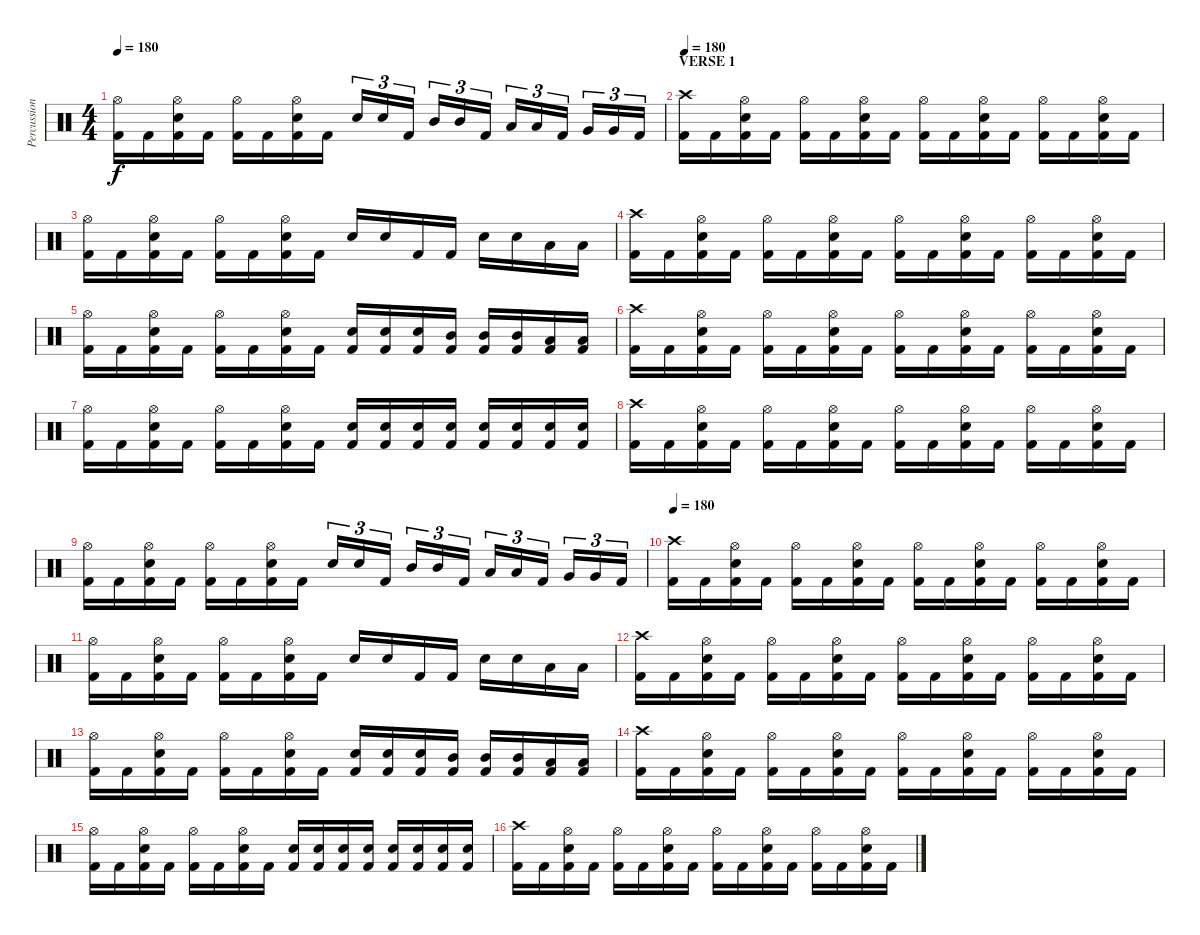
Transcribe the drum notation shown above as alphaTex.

\track ("Percussion" "Percussion") {instrument percussion}
\staff {score}
\articulation defaults
\ts (4 4)
\tempo 180
\clef neutral
\ks c
("Hi-Hat (open)" "Kick (hit) 2").16{dy f} "Kick (hit) 2".16 ("Hi-Hat (open)" "Snare (hit) 2" "Kick (hit) 2").16 "Kick (hit) 2".16 ("Hi-Hat (open)" "Kick (hit) 2").16 "Kick (hit) 2".16 ("Hi-Hat (open)" "Snare (hit) 2" "Kick (hit) 2").16 "Kick (hit) 2".16 "Snare (hit) 2".16{tu (3 2)} "Snare (hit) 2".16{tu (3 2)} "Kick (hit) 2".16{tu (3 2)} "Mid Tom (hit)".16{tu (3 2)} "Mid Tom (hit)".16{tu (3 2)} "Kick (hit) 2".16{tu (3 2)} "Low Tom (hit)".16{tu (3 2)} "Low Tom (hit)".16{tu (3 2)} "Kick (hit) 2".16{tu (3 2)} "Very Low Tom (hit)".16{tu (3 2)} "Very Low Tom (hit)".16{tu (3 2)} "Kick (hit) 2".16{tu (3 2)} |
\section ("" "VERSE 1")
\tempo 180
("Crash high (hit)" "Kick (hit) 2").16 "Kick (hit) 2".16 ("Hi-Hat (open)" "Snare (hit) 2" "Kick (hit) 2").16 "Kick (hit) 2".16 ("Hi-Hat (open)" "Kick (hit) 2").16 "Kick (hit) 2".16 ("Hi-Hat (open)" "Snare (hit) 2" "Kick (hit) 2").16 "Kick (hit) 2".16 ("Hi-Hat (open)" "Kick (hit) 2").16 "Kick (hit) 2".16 ("Hi-Hat (open)" "Snare (hit) 2" "Kick (hit) 2").16 "Kick (hit) 2".16 ("Hi-Hat (open)" "Kick (hit) 2").16 "Kick (hit) 2".16 ("Hi-Hat (open)" "Snare (hit) 2" "Kick (hit) 2").16 "Kick (hit) 2".16 |
("Hi-Hat (open)" "Kick (hit) 2").16 "Kick (hit) 2".16 ("Hi-Hat (open)" "Snare (hit) 2" "Kick (hit) 2").16 "Kick (hit) 2".16 ("Hi-Hat (open)" "Kick (hit) 2").16 "Kick (hit) 2".16 ("Hi-Hat (open)" "Snare (hit) 2" "Kick (hit) 2").16 "Kick (hit) 2".16 "Snare (hit) 2".16 "Snare (hit) 2".16 "Kick (hit) 2".16 "Kick (hit) 2".16 "Snare (hit) 2".16 "Snare (hit) 2".16 "Low Tom (hit)".16 "Low Tom (hit)".16 |
("Crash high (hit)" "Kick (hit) 2").16 "Kick (hit) 2".16 ("Hi-Hat (open)" "Snare (hit) 2" "Kick (hit) 2").16 "Kick (hit) 2".16 ("Hi-Hat (open)" "Kick (hit) 2").16 "Kick (hit) 2".16 ("Hi-Hat (open)" "Snare (hit) 2" "Kick (hit) 2").16 "Kick (hit) 2".16 ("Hi-Hat (open)" "Kick (hit) 2").16 "Kick (hit) 2".16 ("Hi-Hat (open)" "Snare (hit) 2" "Kick (hit) 2").16 "Kick (hit) 2".16 ("Hi-Hat (open)" "Kick (hit) 2").16 "Kick (hit) 2".16 ("Hi-Hat (open)" "Snare (hit) 2" "Kick (hit) 2").16 "Kick (hit) 2".16 |
("Hi-Hat (open)" "Kick (hit) 2").16 "Kick (hit) 2".16 ("Hi-Hat (open)" "Snare (hit) 2" "Kick (hit) 2").16 "Kick (hit) 2".16 ("Hi-Hat (open)" "Kick (hit) 2").16 "Kick (hit) 2".16 ("Hi-Hat (open)" "Snare (hit) 2" "Kick (hit) 2").16 "Kick (hit) 2".16 ("Snare (hit) 2" "Kick (hit) 2").16 ("Snare (hit) 2" "Kick (hit) 2").16 ("Snare (hit) 2" "Kick (hit) 2").16 ("Mid Tom (hit)" "Kick (hit) 2").16 ("Mid Tom (hit)" "Kick (hit) 2").16 ("Mid Tom (hit)" "Kick (hit) 2").16 ("Low Tom (hit)" "Kick (hit) 2").16 ("Low Tom (hit)" "Kick (hit) 2").16 |
("Crash high (hit)" "Kick (hit) 2").16 "Kick (hit) 2".16 ("Hi-Hat (open)" "Snare (hit) 2" "Kick (hit) 2").16 "Kick (hit) 2".16 ("Hi-Hat (open)" "Kick (hit) 2").16 "Kick (hit) 2".16 ("Hi-Hat (open)" "Snare (hit) 2" "Kick (hit) 2").16 "Kick (hit) 2".16 ("Hi-Hat (open)" "Kick (hit) 2").16 "Kick (hit) 2".16 ("Hi-Hat (open)" "Snare (hit) 2" "Kick (hit) 2").16 "Kick (hit) 2".16 ("Hi-Hat (open)" "Kick (hit) 2").16 "Kick (hit) 2".16 ("Hi-Hat (open)" "Snare (hit) 2" "Kick (hit) 2").16 "Kick (hit) 2".16 |
("Hi-Hat (open)" "Kick (hit) 2").16 "Kick (hit) 2".16 ("Hi-Hat (open)" "Snare (hit) 2" "Kick (hit) 2").16 "Kick (hit) 2".16 ("Hi-Hat (open)" "Kick (hit) 2").16 "Kick (hit) 2".16 ("Hi-Hat (open)" "Snare (hit) 2" "Kick (hit) 2").16 "Kick (hit) 2".16 ("Snare (hit) 2" "Kick (hit) 2").16 ("Snare (hit) 2" "Kick (hit) 2").16 ("Snare (hit) 2" "Kick (hit) 2").16 ("Snare (hit) 2" "Kick (hit) 2").16 ("Snare (hit) 2" "Kick (hit) 2").16 ("Snare (hit) 2" "Kick (hit) 2").16 ("Snare (hit) 2" "Kick (hit) 2").16 ("Snare (hit) 2" "Kick (hit) 2").16 |
("Crash high (hit)" "Kick (hit) 2").16 "Kick (hit) 2".16 ("Hi-Hat (open)" "Snare (hit) 2" "Kick (hit) 2").16 "Kick (hit) 2".16 ("Hi-Hat (open)" "Kick (hit) 2").16 "Kick (hit) 2".16 ("Hi-Hat (open)" "Snare (hit) 2" "Kick (hit) 2").16 "Kick (hit) 2".16 ("Hi-Hat (open)" "Kick (hit) 2").16 "Kick (hit) 2".16 ("Hi-Hat (open)" "Snare (hit) 2" "Kick (hit) 2").16 "Kick (hit) 2".16 ("Hi-Hat (open)" "Kick (hit) 2").16 "Kick (hit) 2".16 ("Hi-Hat (open)" "Snare (hit) 2" "Kick (hit) 2").16 "Kick (hit) 2".16 |
("Hi-Hat (open)" "Kick (hit) 2").16 "Kick (hit) 2".16 ("Hi-Hat (open)" "Snare (hit) 2" "Kick (hit) 2").16 "Kick (hit) 2".16 ("Hi-Hat (open)" "Kick (hit) 2").16 "Kick (hit) 2".16 ("Hi-Hat (open)" "Snare (hit) 2" "Kick (hit) 2").16 "Kick (hit) 2".16 "Snare (hit) 2".16{tu (3 2)} "Snare (hit) 2".16{tu (3 2)} "Kick (hit) 2".16{tu (3 2)} "Mid Tom (hit)".16{tu (3 2)} "Mid Tom (hit)".16{tu (3 2)} "Kick (hit) 2".16{tu (3 2)} "Low Tom (hit)".16{tu (3 2)} "Low Tom (hit)".16{tu (3 2)} "Kick (hit) 2".16{tu (3 2)} "Very Low Tom (hit)".16{tu (3 2)} "Very Low Tom (hit)".16{tu (3 2)} "Kick (hit) 2".16{tu (3 2)} |
\tempo 180
("Crash high (hit)" "Kick (hit) 2").16 "Kick (hit) 2".16 ("Hi-Hat (open)" "Snare (hit) 2" "Kick (hit) 2").16 "Kick (hit) 2".16 ("Hi-Hat (open)" "Kick (hit) 2").16 "Kick (hit) 2".16 ("Hi-Hat (open)" "Snare (hit) 2" "Kick (hit) 2").16 "Kick (hit) 2".16 ("Hi-Hat (open)" "Kick (hit) 2").16 "Kick (hit) 2".16 ("Hi-Hat (open)" "Snare (hit) 2" "Kick (hit) 2").16 "Kick (hit) 2".16 ("Hi-Hat (open)" "Kick (hit) 2").16 "Kick (hit) 2".16 ("Hi-Hat (open)" "Snare (hit) 2" "Kick (hit) 2").16 "Kick (hit) 2".16 |
("Hi-Hat (open)" "Kick (hit) 2").16 "Kick (hit) 2".16 ("Hi-Hat (open)" "Snare (hit) 2" "Kick (hit) 2").16 "Kick (hit) 2".16 ("Hi-Hat (open)" "Kick (hit) 2").16 "Kick (hit) 2".16 ("Hi-Hat (open)" "Snare (hit) 2" "Kick (hit) 2").16 "Kick (hit) 2".16 "Snare (hit) 2".16 "Snare (hit) 2".16 "Kick (hit) 2".16 "Kick (hit) 2".16 "Snare (hit) 2".16 "Snare (hit) 2".16 "Low Tom (hit)".16 "Low Tom (hit)".16 |
("Crash high (hit)" "Kick (hit) 2").16 "Kick (hit) 2".16 ("Hi-Hat (open)" "Snare (hit) 2" "Kick (hit) 2").16 "Kick (hit) 2".16 ("Hi-Hat (open)" "Kick (hit) 2").16 "Kick (hit) 2".16 ("Hi-Hat (open)" "Snare (hit) 2" "Kick (hit) 2").16 "Kick (hit) 2".16 ("Hi-Hat (open)" "Kick (hit) 2").16 "Kick (hit) 2".16 ("Hi-Hat (open)" "Snare (hit) 2" "Kick (hit) 2").16 "Kick (hit) 2".16 ("Hi-Hat (open)" "Kick (hit) 2").16 "Kick (hit) 2".16 ("Hi-Hat (open)" "Snare (hit) 2" "Kick (hit) 2").16 "Kick (hit) 2".16 |
("Hi-Hat (open)" "Kick (hit) 2").16 "Kick (hit) 2".16 ("Hi-Hat (open)" "Snare (hit) 2" "Kick (hit) 2").16 "Kick (hit) 2".16 ("Hi-Hat (open)" "Kick (hit) 2").16 "Kick (hit) 2".16 ("Hi-Hat (open)" "Snare (hit) 2" "Kick (hit) 2").16 "Kick (hit) 2".16 ("Snare (hit) 2" "Kick (hit) 2").16 ("Snare (hit) 2" "Kick (hit) 2").16 ("Snare (hit) 2" "Kick (hit) 2").16 ("Mid Tom (hit)" "Kick (hit) 2").16 ("Mid Tom (hit)" "Kick (hit) 2").16 ("Mid Tom (hit)" "Kick (hit) 2").16 ("Low Tom (hit)" "Kick (hit) 2").16 ("Low Tom (hit)" "Kick (hit) 2").16 |
("Crash high (hit)" "Kick (hit) 2").16 "Kick (hit) 2".16 ("Hi-Hat (open)" "Snare (hit) 2" "Kick (hit) 2").16 "Kick (hit) 2".16 ("Hi-Hat (open)" "Kick (hit) 2").16 "Kick (hit) 2".16 ("Hi-Hat (open)" "Snare (hit) 2" "Kick (hit) 2").16 "Kick (hit) 2".16 ("Hi-Hat (open)" "Kick (hit) 2").16 "Kick (hit) 2".16 ("Hi-Hat (open)" "Snare (hit) 2" "Kick (hit) 2").16 "Kick (hit) 2".16 ("Hi-Hat (open)" "Kick (hit) 2").16 "Kick (hit) 2".16 ("Hi-Hat (open)" "Snare (hit) 2" "Kick (hit) 2").16 "Kick (hit) 2".16 |
("Hi-Hat (open)" "Kick (hit) 2").16 "Kick (hit) 2".16 ("Hi-Hat (open)" "Snare (hit) 2" "Kick (hit) 2").16 "Kick (hit) 2".16 ("Hi-Hat (open)" "Kick (hit) 2").16 "Kick (hit) 2".16 ("Hi-Hat (open)" "Snare (hit) 2" "Kick (hit) 2").16 "Kick (hit) 2".16 ("Snare (hit) 2" "Kick (hit) 2").16 ("Snare (hit) 2" "Kick (hit) 2").16 ("Snare (hit) 2" "Kick (hit) 2").16 ("Snare (hit) 2" "Kick (hit) 2").16 ("Snare (hit) 2" "Kick (hit) 2").16 ("Snare (hit) 2" "Kick (hit) 2").16 ("Snare (hit) 2" "Kick (hit) 2").16 ("Snare (hit) 2" "Kick (hit) 2").16 |
("Crash high (hit)" "Kick (hit) 2").16 "Kick (hit) 2".16 ("Hi-Hat (open)" "Snare (hit) 2" "Kick (hit) 2").16 "Kick (hit) 2".16 ("Hi-Hat (open)" "Kick (hit) 2").16 "Kick (hit) 2".16 ("Hi-Hat (open)" "Snare (hit) 2" "Kick (hit) 2").16 "Kick (hit) 2".16 ("Hi-Hat (open)" "Kick (hit) 2").16 "Kick (hit) 2".16 ("Hi-Hat (open)" "Snare (hit) 2" "Kick (hit) 2").16 "Kick (hit) 2".16 ("Hi-Hat (open)" "Kick (hit) 2").16 "Kick (hit) 2".16 ("Hi-Hat (open)" "Snare (hit) 2" "Kick (hit) 2").16 "Kick (hit) 2".16
